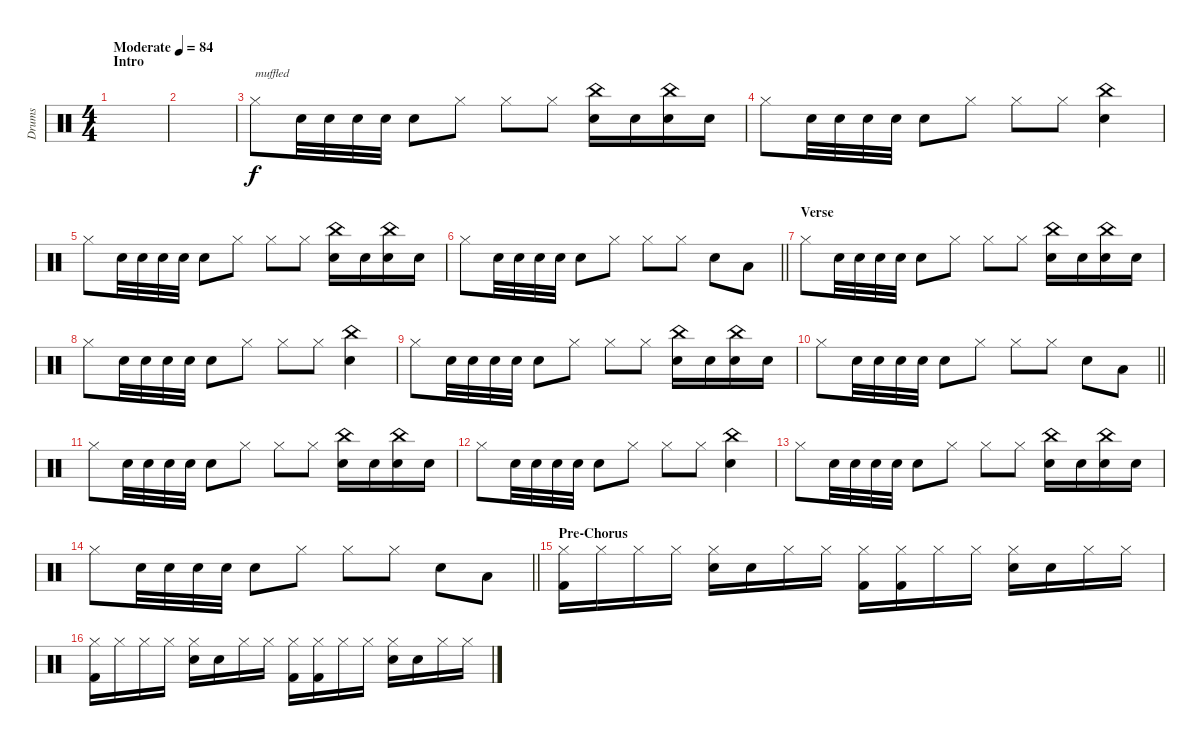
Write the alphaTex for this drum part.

\track ("Drums" "Drums") {instrument percussion}
\staff {score}
\articulation defaults
\ts (4 4)
\section ("" "Intro")
\tempo (84 "Moderate")
\clef neutral
\ks c
|
|
"Hi-Hat (closed)".8{txt "muffled"} "Snare (hit) 2".32 "Snare (hit) 2".32 "Snare (hit) 2".32 "Snare (hit) 2".32 "Snare (hit) 2".8 "Hi-Hat (closed)".8 "Hi-Hat (closed)".8 "Hi-Hat (closed)".8 ("China (hit)" "Snare (hit) 2").16 "Snare (hit) 2".16 ("China (hit)" "Snare (hit) 2").16 "Snare (hit) 2".16 |
"Hi-Hat (closed)".8 "Snare (hit) 2".32 "Snare (hit) 2".32 "Snare (hit) 2".32 "Snare (hit) 2".32 "Snare (hit) 2".8 "Hi-Hat (closed)".8 "Hi-Hat (closed)".8 "Hi-Hat (closed)".8 ("China (hit)" "Snare (hit) 2").4 |
"Hi-Hat (closed)".8 "Snare (hit) 2".32 "Snare (hit) 2".32 "Snare (hit) 2".32 "Snare (hit) 2".32 "Snare (hit) 2".8 "Hi-Hat (closed)".8 "Hi-Hat (closed)".8 "Hi-Hat (closed)".8 ("China (hit)" "Snare (hit) 2").16 "Snare (hit) 2".16 ("China (hit)" "Snare (hit) 2").16 "Snare (hit) 2".16 |
\barLineRight lightlight "Hi-Hat (closed)".8 "Snare (hit) 2".32 "Snare (hit) 2".32 "Snare (hit) 2".32 "Snare (hit) 2".32 "Snare (hit) 2".8 "Hi-Hat (closed)".8 "Hi-Hat (closed)".8 "Hi-Hat (closed)".8 "Snare (hit) 2".8 "Low Tom (hit)".8
|
\section ("" "Verse")
"Hi-Hat (closed)".8 "Snare (hit) 2".32 "Snare (hit) 2".32 "Snare (hit) 2".32 "Snare (hit) 2".32 "Snare (hit) 2".8 "Hi-Hat (closed)".8 "Hi-Hat (closed)".8 "Hi-Hat (closed)".8 ("China (hit)" "Snare (hit) 2").16 "Snare (hit) 2".16 ("China (hit)" "Snare (hit) 2").16 "Snare (hit) 2".16 |
"Hi-Hat (closed)".8 "Snare (hit) 2".32 "Snare (hit) 2".32 "Snare (hit) 2".32 "Snare (hit) 2".32 "Snare (hit) 2".8 "Hi-Hat (closed)".8 "Hi-Hat (closed)".8 "Hi-Hat (closed)".8 ("China (hit)" "Snare (hit) 2").4 |
"Hi-Hat (closed)".8 "Snare (hit) 2".32 "Snare (hit) 2".32 "Snare (hit) 2".32 "Snare (hit) 2".32 "Snare (hit) 2".8 "Hi-Hat (closed)".8 "Hi-Hat (closed)".8 "Hi-Hat (closed)".8 ("China (hit)" "Snare (hit) 2").16 "Snare (hit) 2".16 ("China (hit)" "Snare (hit) 2").16 "Snare (hit) 2".16 |
\barLineRight lightlight "Hi-Hat (closed)".8 "Snare (hit) 2".32 "Snare (hit) 2".32 "Snare (hit) 2".32 "Snare (hit) 2".32 "Snare (hit) 2".8 "Hi-Hat (closed)".8 "Hi-Hat (closed)".8 "Hi-Hat (closed)".8 "Snare (hit) 2".8 "Low Tom (hit)".8
|
"Hi-Hat (closed)".8 "Snare (hit) 2".32 "Snare (hit) 2".32 "Snare (hit) 2".32 "Snare (hit) 2".32 "Snare (hit) 2".8 "Hi-Hat (closed)".8 "Hi-Hat (closed)".8 "Hi-Hat (closed)".8 ("China (hit)" "Snare (hit) 2").16 "Snare (hit) 2".16 ("China (hit)" "Snare (hit) 2").16 "Snare (hit) 2".16 |
"Hi-Hat (closed)".8 "Snare (hit) 2".32 "Snare (hit) 2".32 "Snare (hit) 2".32 "Snare (hit) 2".32 "Snare (hit) 2".8 "Hi-Hat (closed)".8 "Hi-Hat (closed)".8 "Hi-Hat (closed)".8 ("China (hit)" "Snare (hit) 2").4 |
"Hi-Hat (closed)".8 "Snare (hit) 2".32 "Snare (hit) 2".32 "Snare (hit) 2".32 "Snare (hit) 2".32 "Snare (hit) 2".8 "Hi-Hat (closed)".8 "Hi-Hat (closed)".8 "Hi-Hat (closed)".8 ("China (hit)" "Snare (hit) 2").16 "Snare (hit) 2".16 ("China (hit)" "Snare (hit) 2").16 "Snare (hit) 2".16 |
\barLineRight lightlight "Hi-Hat (closed)".8 "Snare (hit) 2".32 "Snare (hit) 2".32 "Snare (hit) 2".32 "Snare (hit) 2".32 "Snare (hit) 2".8 "Hi-Hat (closed)".8 "Hi-Hat (closed)".8 "Hi-Hat (closed)".8 "Snare (hit) 2".8 "Low Tom (hit)".8
|
\section ("" "Pre-Chorus")
("Hi-Hat (closed)" "Kick (hit) 2").16{volume 13} "Hi-Hat (closed)".16 "Hi-Hat (closed)".16 "Hi-Hat (closed)".16 ("Hi-Hat (closed)" "Electric Snare (hit)").16 "Electric Snare (hit)".16 "Hi-Hat (closed)".16 "Hi-Hat (closed)".16 ("Hi-Hat (closed)" "Kick (hit) 2").16 ("Hi-Hat (closed)" "Kick (hit) 2").16 "Hi-Hat (closed)".16 "Hi-Hat (closed)".16 ("Hi-Hat (closed)" "Electric Snare (hit)").16 "Electric Snare (hit)".16 "Hi-Hat (closed)".16 "Hi-Hat (closed)".16 |
("Hi-Hat (closed)" "Kick (hit) 2").16 "Hi-Hat (closed)".16 "Hi-Hat (closed)".16 "Hi-Hat (closed)".16 ("Hi-Hat (closed)" "Electric Snare (hit)").16 "Electric Snare (hit)".16 "Hi-Hat (closed)".16 "Hi-Hat (closed)".16 ("Hi-Hat (closed)" "Kick (hit) 2").16 ("Hi-Hat (closed)" "Kick (hit) 2").16 "Hi-Hat (closed)".16 "Hi-Hat (closed)".16 ("Hi-Hat (closed)" "Electric Snare (hit)").16 "Electric Snare (hit)".16 "Hi-Hat (closed)".16 "Hi-Hat (closed)".16
